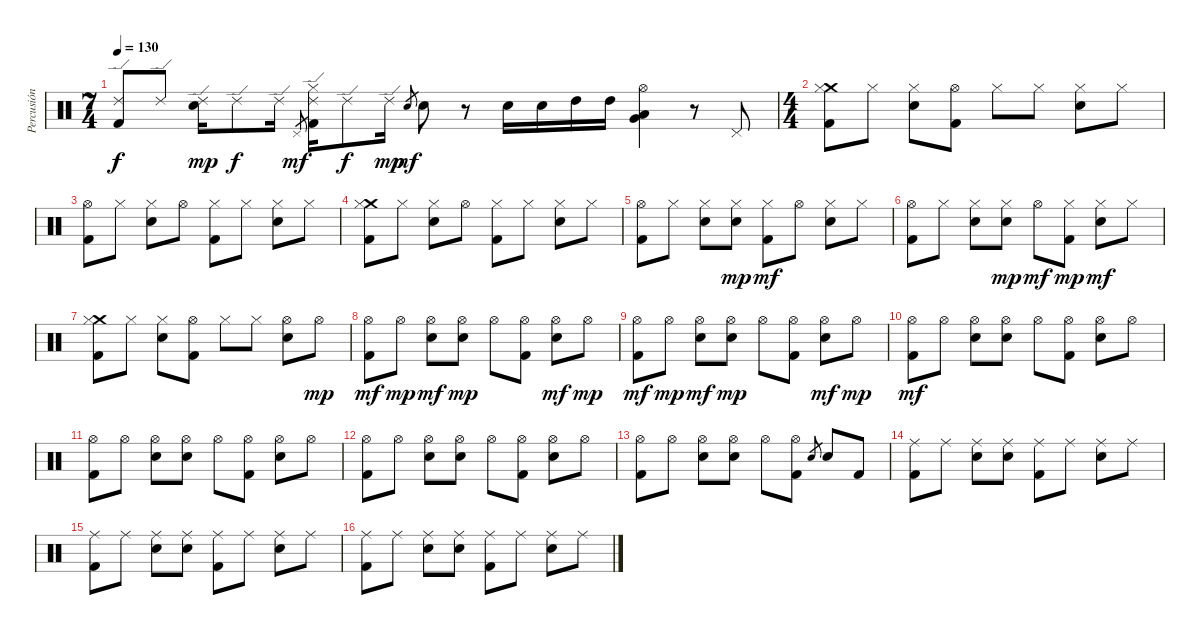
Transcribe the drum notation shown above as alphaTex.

\track ("Percusión" "Percusión") {instrument percussion}
\staff {score}
\articulation defaults
\ts (7 4)
\tempo 130
\clef neutral
\ks c
("Ride (edge) 2" "Kick (hit) 2").8{dy f} "Ride (edge) 2".8 ("Ride (edge) 2" "Electric Snare (hit)").16{dy mp} "Ride (edge) 2".8{dy f} "Ride (edge) 2".16 "Pedal Hi-Hat (hit)".8{gr dy mf} ("Ride (edge) 2" "Hi-Hat (closed)" "Kick (hit) 2").16 "Ride (edge) 2".8{dy f} "Ride (edge) 2".16{dy mp} "Electric Snare (hit)".8{gr dy mf} "Electric Snare (hit)".8 r.8 "Electric Snare (hit)".16 "Electric Snare (hit)".16 "High Tom (hit)".16 "High Tom (hit)".16 ("Hi-Hat (open)" "Low Tom (hit)" "Very Low Tom (hit)").4 r.8 "Pedal Hi-Hat (hit)".8 |
\ts (4 4)
("Crash medium (hit)" "Hi-Hat (closed)" "Kick (hit) 2").8 "Hi-Hat (closed)".8 ("Hi-Hat (closed)" "Electric Snare (hit)").8 ("Hi-Hat (open)" "Kick (hit) 2").8 "Hi-Hat (closed)".8 "Hi-Hat (closed)".8 ("Hi-Hat (closed)" "Electric Snare (hit)").8 "Hi-Hat (closed)".8 |
("Hi-Hat (open)" "Kick (hit) 2").8 "Hi-Hat (closed)".8 ("Hi-Hat (closed)" "Electric Snare (hit)").8 "Hi-Hat (open)".8 ("Hi-Hat (closed)" "Kick (hit) 2").8 "Hi-Hat (closed)".8 ("Hi-Hat (closed)" "Electric Snare (hit)").8 "Hi-Hat (closed)".8 |
("Crash medium (hit)" "Hi-Hat (closed)" "Kick (hit) 2").8 "Hi-Hat (closed)".8 ("Hi-Hat (closed)" "Electric Snare (hit)").8 "Hi-Hat (open)".8 ("Hi-Hat (closed)" "Kick (hit) 2").8 "Hi-Hat (closed)".8 ("Hi-Hat (closed)" "Electric Snare (hit)").8 "Hi-Hat (closed)".8 |
("Hi-Hat (open)" "Kick (hit) 2").8 "Hi-Hat (closed)".8 ("Hi-Hat (closed)" "Electric Snare (hit)").8 ("Hi-Hat (closed)" "Electric Snare (hit)").8{dy mp} ("Hi-Hat (closed)" "Kick (hit) 2").8{dy mf} "Hi-Hat (open)".8 ("Hi-Hat (closed)" "Electric Snare (hit)").8 "Hi-Hat (closed)".8 |
("Hi-Hat (open)" "Kick (hit) 2").8 "Hi-Hat (closed)".8 ("Hi-Hat (closed)" "Electric Snare (hit)").8 ("Hi-Hat (closed)" "Electric Snare (hit)").8{dy mp} "Hi-Hat (open)".8{dy mf} ("Hi-Hat (closed)" "Kick (hit) 2").8{dy mp} ("Hi-Hat (closed)" "Electric Snare (hit)").8{dy mf} "Hi-Hat (closed)".8 |
("Crash medium (hit)" "Hi-Hat (closed)" "Kick (hit) 2").8 "Hi-Hat (closed)".8 ("Hi-Hat (closed)" "Electric Snare (hit)").8 ("Hi-Hat (open)" "Kick (hit) 2").8 "Hi-Hat (closed)".8 "Hi-Hat (closed)".8 ("Hi-Hat (open)" "Electric Snare (hit)").8 "Hi-Hat (open)".8{dy mp} |
("Hi-Hat (open)" "Kick (hit) 2").8{dy mf} "Hi-Hat (open)".8{dy mp} ("Hi-Hat (open)" "Electric Snare (hit)").8{dy mf} ("Hi-Hat (open)" "Electric Snare (hit)").8{dy mp} "Hi-Hat (open)".8 ("Hi-Hat (open)" "Kick (hit) 2").8 ("Hi-Hat (open)" "Electric Snare (hit)").8{dy mf} "Hi-Hat (open)".8{dy mp} |
("Hi-Hat (open)" "Kick (hit) 2").8{dy mf} "Hi-Hat (open)".8{dy mp} ("Hi-Hat (open)" "Electric Snare (hit)").8{dy mf} ("Hi-Hat (open)" "Electric Snare (hit)").8{dy mp} "Hi-Hat (open)".8 ("Hi-Hat (open)" "Kick (hit) 2").8 ("Hi-Hat (open)" "Electric Snare (hit)").8{dy mf} "Hi-Hat (open)".8{dy mp} |
("Hi-Hat (open)" "Kick (hit) 2").8{dy mf} "Hi-Hat (open)".8 ("Hi-Hat (open)" "Electric Snare (hit)").8 ("Hi-Hat (open)" "Electric Snare (hit)").8 "Hi-Hat (open)".8 ("Hi-Hat (open)" "Kick (hit) 2").8 ("Hi-Hat (open)" "Electric Snare (hit)").8 "Hi-Hat (open)".8 |
("Hi-Hat (open)" "Kick (hit) 2").8 "Hi-Hat (open)".8 ("Hi-Hat (open)" "Electric Snare (hit)").8 ("Hi-Hat (open)" "Electric Snare (hit)").8 "Hi-Hat (open)".8 ("Hi-Hat (open)" "Kick (hit) 2").8 ("Hi-Hat (open)" "Electric Snare (hit)").8 "Hi-Hat (open)".8 |
("Hi-Hat (open)" "Kick (hit) 2").8 "Hi-Hat (open)".8 ("Hi-Hat (open)" "Electric Snare (hit)").8 ("Hi-Hat (open)" "Electric Snare (hit)").8 "Hi-Hat (open)".8 ("Hi-Hat (open)" "Kick (hit) 2").8 ("Hi-Hat (open)" "Electric Snare (hit)").8 "Hi-Hat (open)".8 |
("Hi-Hat (open)" "Kick (hit) 2").8 "Hi-Hat (open)".8 ("Hi-Hat (open)" "Electric Snare (hit)").8 ("Hi-Hat (open)" "Electric Snare (hit)").8 "Hi-Hat (open)".8 ("Hi-Hat (open)" "Kick (hit) 2").8 "Electric Snare (hit)".8{gr} "Electric Snare (hit)".8 "Kick (hit) 2".8 |
("Ride (middle)" "Kick (hit) 2").8 "Ride (middle)".8 ("Ride (middle)" "Electric Snare (hit)").8 ("Ride (middle)" "Electric Snare (hit)").8 ("Ride (middle)" "Kick (hit) 2").8 "Ride (middle)".8 ("Ride (middle)" "Electric Snare (hit)").8 "Ride (middle)".8 |
("Ride (middle)" "Kick (hit) 2").8 "Ride (middle)".8 ("Ride (middle)" "Electric Snare (hit)").8 ("Ride (middle)" "Electric Snare (hit)").8 ("Ride (middle)" "Kick (hit) 2").8 "Ride (middle)".8 ("Ride (middle)" "Electric Snare (hit)").8 "Ride (middle)".8 |
("Ride (middle)" "Kick (hit) 2").8 "Ride (middle)".8 ("Ride (middle)" "Electric Snare (hit)").8 ("Ride (middle)" "Electric Snare (hit)").8 ("Ride (middle)" "Kick (hit) 2").8 "Ride (middle)".8 ("Ride (middle)" "Electric Snare (hit)").8 "Ride (middle)".8
